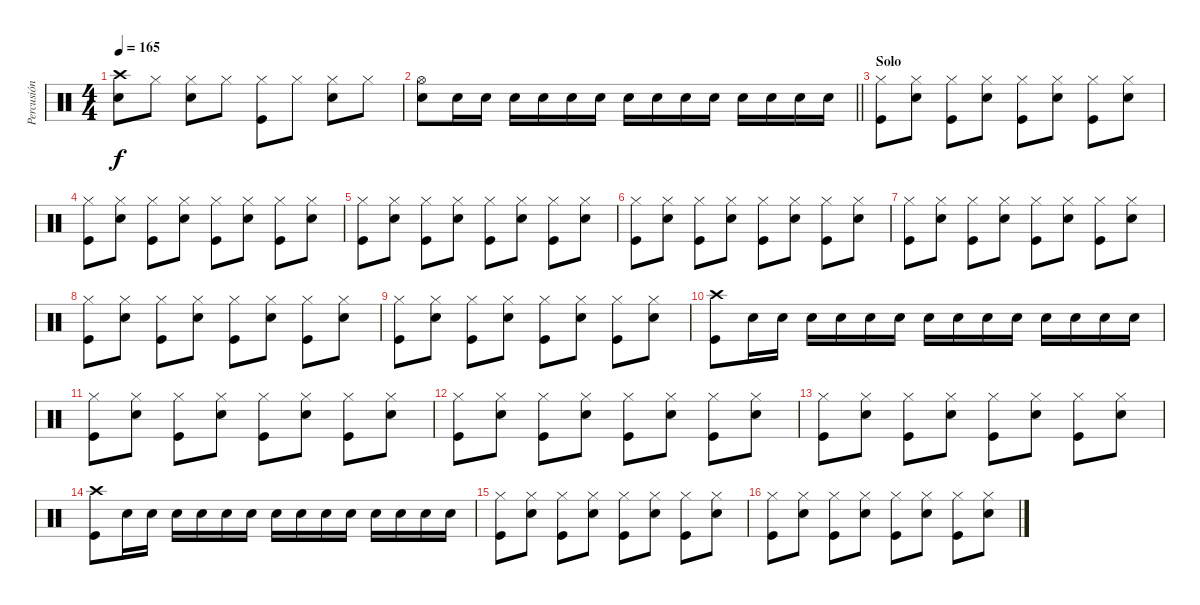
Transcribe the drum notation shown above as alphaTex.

\track ("Percusión" "Percusión") {instrument percussion}
\staff {score}
\articulation defaults
\ts (4 4)
\tempo 165
\clef neutral
\ks c
("Crash high (hit)" "Snare (hit) 2").8{dy f} "Hi-Hat (closed)".8 ("Snare (hit) 2" "Hi-Hat (closed)").8 "Hi-Hat (closed)".8 ("Kick (hit)" "Hi-Hat (closed)").8 "Hi-Hat (closed)".8 ("Snare (hit) 2" "Hi-Hat (closed)").8 "Hi-Hat (closed)".8 |
\barLineRight lightlight
("Hi-Hat (open)" "Snare (hit) 2").8 "Snare (hit) 2".16 "Snare (hit) 2".16 "Snare (hit) 2".16 "Snare (hit) 2".16 "Snare (hit) 2".16 "Snare (hit) 2".16 "Snare (hit) 2".16 "Snare (hit) 2".16 "Snare (hit) 2".16 "Snare (hit) 2".16 "Snare (hit) 2".16 "Snare (hit) 2".16 "Snare (hit) 2".16 "Snare (hit) 2".16 |
\section ("" "Solo")
("Hi-Hat (closed)" "Kick (hit)").8 ("Hi-Hat (closed)" "Snare (hit) 2").8 ("Hi-Hat (closed)" "Kick (hit)").8 ("Hi-Hat (closed)" "Snare (hit) 2").8 ("Hi-Hat (closed)" "Kick (hit)").8 ("Hi-Hat (closed)" "Snare (hit) 2").8 ("Hi-Hat (closed)" "Kick (hit)").8 ("Hi-Hat (closed)" "Snare (hit) 2").8 |
("Hi-Hat (closed)" "Kick (hit)").8 ("Hi-Hat (closed)" "Snare (hit) 2").8 ("Hi-Hat (closed)" "Kick (hit)").8 ("Hi-Hat (closed)" "Snare (hit) 2").8 ("Hi-Hat (closed)" "Kick (hit)").8 ("Hi-Hat (closed)" "Snare (hit) 2").8 ("Hi-Hat (closed)" "Kick (hit)").8 ("Hi-Hat (closed)" "Snare (hit) 2").8 |
("Hi-Hat (closed)" "Kick (hit)").8 ("Hi-Hat (closed)" "Snare (hit) 2").8 ("Hi-Hat (closed)" "Kick (hit)").8 ("Hi-Hat (closed)" "Snare (hit) 2").8 ("Hi-Hat (closed)" "Kick (hit)").8 ("Hi-Hat (closed)" "Snare (hit) 2").8 ("Hi-Hat (closed)" "Kick (hit)").8 ("Hi-Hat (closed)" "Snare (hit) 2").8 |
("Hi-Hat (closed)" "Kick (hit)").8 ("Hi-Hat (closed)" "Snare (hit) 2").8 ("Hi-Hat (closed)" "Kick (hit)").8 ("Hi-Hat (closed)" "Snare (hit) 2").8 ("Hi-Hat (closed)" "Kick (hit)").8 ("Hi-Hat (closed)" "Snare (hit) 2").8 ("Hi-Hat (closed)" "Kick (hit)").8 ("Hi-Hat (closed)" "Snare (hit) 2").8 |
("Hi-Hat (closed)" "Kick (hit)").8 ("Hi-Hat (closed)" "Snare (hit) 2").8 ("Hi-Hat (closed)" "Kick (hit)").8 ("Hi-Hat (closed)" "Snare (hit) 2").8 ("Hi-Hat (closed)" "Kick (hit)").8 ("Hi-Hat (closed)" "Snare (hit) 2").8 ("Hi-Hat (closed)" "Kick (hit)").8 ("Hi-Hat (closed)" "Snare (hit) 2").8 |
("Hi-Hat (closed)" "Kick (hit)").8 ("Hi-Hat (closed)" "Snare (hit) 2").8 ("Hi-Hat (closed)" "Kick (hit)").8 ("Hi-Hat (closed)" "Snare (hit) 2").8 ("Hi-Hat (closed)" "Kick (hit)").8 ("Hi-Hat (closed)" "Snare (hit) 2").8 ("Hi-Hat (closed)" "Kick (hit)").8 ("Hi-Hat (closed)" "Snare (hit) 2").8 |
("Hi-Hat (closed)" "Kick (hit)").8 ("Hi-Hat (closed)" "Snare (hit) 2").8 ("Hi-Hat (closed)" "Kick (hit)").8 ("Hi-Hat (closed)" "Snare (hit) 2").8 ("Hi-Hat (closed)" "Kick (hit)").8 ("Hi-Hat (closed)" "Snare (hit) 2").8 ("Hi-Hat (closed)" "Kick (hit)").8 ("Hi-Hat (closed)" "Snare (hit) 2").8 |
("Crash high (hit)" "Kick (hit)").8 "Snare (hit) 2".16 "Snare (hit) 2".16 "Snare (hit) 2".16 "Snare (hit) 2".16 "Snare (hit) 2".16 "Snare (hit) 2".16 "Snare (hit) 2".16 "Snare (hit) 2".16 "Snare (hit) 2".16 "Snare (hit) 2".16 "Snare (hit) 2".16 "Snare (hit) 2".16 "Snare (hit) 2".16 "Snare (hit) 2".16 |
("Hi-Hat (closed)" "Kick (hit)").8 ("Hi-Hat (closed)" "Snare (hit) 2").8 ("Hi-Hat (closed)" "Kick (hit)").8 ("Hi-Hat (closed)" "Snare (hit) 2").8 ("Hi-Hat (closed)" "Kick (hit)").8 ("Hi-Hat (closed)" "Snare (hit) 2").8 ("Hi-Hat (closed)" "Kick (hit)").8 ("Hi-Hat (closed)" "Snare (hit) 2").8 |
("Hi-Hat (closed)" "Kick (hit)").8 ("Hi-Hat (closed)" "Snare (hit) 2").8 ("Hi-Hat (closed)" "Kick (hit)").8 ("Hi-Hat (closed)" "Snare (hit) 2").8 ("Hi-Hat (closed)" "Kick (hit)").8 ("Hi-Hat (closed)" "Snare (hit) 2").8 ("Hi-Hat (closed)" "Kick (hit)").8 ("Hi-Hat (closed)" "Snare (hit) 2").8 |
("Hi-Hat (closed)" "Kick (hit)").8 ("Hi-Hat (closed)" "Snare (hit) 2").8 ("Hi-Hat (closed)" "Kick (hit)").8 ("Hi-Hat (closed)" "Snare (hit) 2").8 ("Hi-Hat (closed)" "Kick (hit)").8 ("Hi-Hat (closed)" "Snare (hit) 2").8 ("Hi-Hat (closed)" "Kick (hit)").8 ("Hi-Hat (closed)" "Snare (hit) 2").8 |
("Crash high (hit)" "Kick (hit)").8 "Snare (hit) 2".16 "Snare (hit) 2".16 "Snare (hit) 2".16 "Snare (hit) 2".16 "Snare (hit) 2".16 "Snare (hit) 2".16 "Snare (hit) 2".16 "Snare (hit) 2".16 "Snare (hit) 2".16 "Snare (hit) 2".16 "Snare (hit) 2".16 "Snare (hit) 2".16 "Snare (hit) 2".16 "Snare (hit) 2".16 |
("Hi-Hat (closed)" "Kick (hit)").8 ("Hi-Hat (closed)" "Snare (hit) 2").8 ("Hi-Hat (closed)" "Kick (hit)").8 ("Hi-Hat (closed)" "Snare (hit) 2").8 ("Hi-Hat (closed)" "Kick (hit)").8 ("Hi-Hat (closed)" "Snare (hit) 2").8 ("Hi-Hat (closed)" "Kick (hit)").8 ("Hi-Hat (closed)" "Snare (hit) 2").8 |
("Hi-Hat (closed)" "Kick (hit)").8 ("Hi-Hat (closed)" "Snare (hit) 2").8 ("Hi-Hat (closed)" "Kick (hit)").8 ("Hi-Hat (closed)" "Snare (hit) 2").8 ("Hi-Hat (closed)" "Kick (hit)").8 ("Hi-Hat (closed)" "Snare (hit) 2").8 ("Hi-Hat (closed)" "Kick (hit)").8 ("Hi-Hat (closed)" "Snare (hit) 2").8
